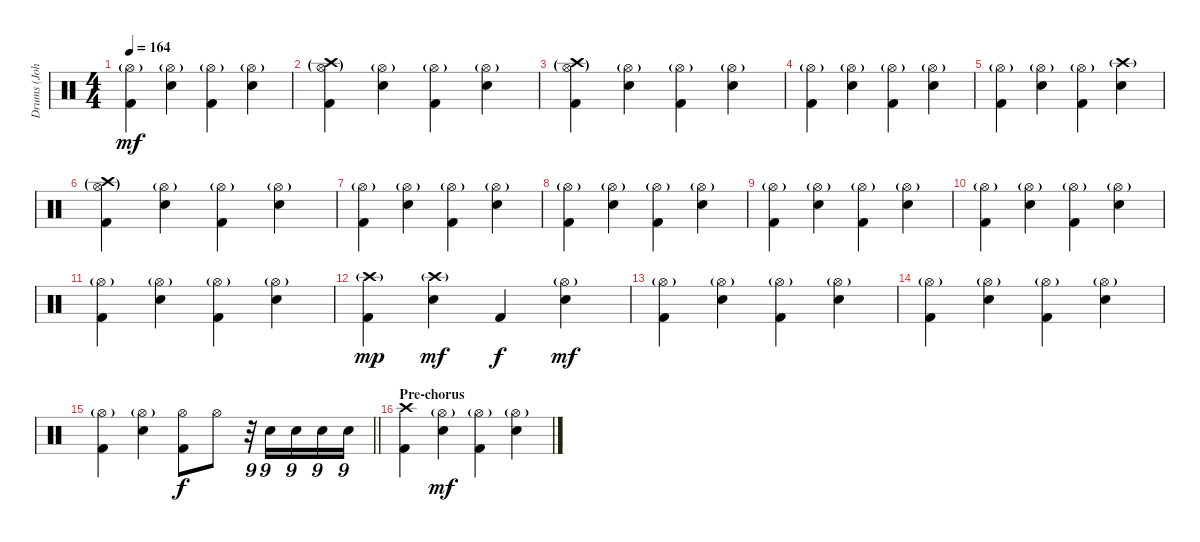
\track ("Drums (John O'Reilly)" "Drums (Joh") {instrument percussion}
\staff {score}
\articulation defaults
\ts (4 4)
\tempo 164
\clef neutral
\ks c
("Hi-Hat (open)"{g} "Kick (hit) 2").4{dy mf} ("Hi-Hat (open)"{g} "Electric Snare (hit)").4 ("Hi-Hat (open)"{g} "Kick (hit) 2").4 ("Hi-Hat (open)"{g} "Electric Snare (hit)").4 |
("Crash high (hit)"{g} "Hi-Hat (open)"{g} "Kick (hit) 2").4 ("Hi-Hat (open)"{g} "Electric Snare (hit)").4 ("Hi-Hat (open)"{g} "Kick (hit) 2").4 ("Hi-Hat (open)"{g} "Electric Snare (hit)").4 |
("Crash high (hit)"{g} "Hi-Hat (open)"{g} "Kick (hit) 2").4 ("Hi-Hat (open)"{g} "Electric Snare (hit)").4 ("Hi-Hat (open)"{g} "Kick (hit) 2").4 ("Hi-Hat (open)"{g} "Electric Snare (hit)").4 |
("Hi-Hat (open)"{g} "Kick (hit) 2").4 ("Hi-Hat (open)"{g} "Electric Snare (hit)").4 ("Hi-Hat (open)"{g} "Kick (hit) 2").4 ("Hi-Hat (open)"{g} "Electric Snare (hit)").4 |
("Hi-Hat (open)"{g} "Kick (hit) 2").4 ("Hi-Hat (open)"{g} "Electric Snare (hit)").4 ("Hi-Hat (open)"{g} "Kick (hit) 2").4 ("Crash high (hit)"{g} "Electric Snare (hit)").4 |
("Crash high (hit)"{g} "Hi-Hat (open)"{g} "Kick (hit) 2").4 ("Hi-Hat (open)"{g} "Electric Snare (hit)").4 ("Hi-Hat (open)"{g} "Kick (hit) 2").4 ("Hi-Hat (open)"{g} "Electric Snare (hit)").4 |
("Hi-Hat (open)"{g} "Kick (hit) 2").4 ("Hi-Hat (open)"{g} "Electric Snare (hit)").4 ("Hi-Hat (open)"{g} "Kick (hit) 2").4 ("Hi-Hat (open)"{g} "Electric Snare (hit)").4 |
("Hi-Hat (open)"{g} "Kick (hit) 2").4 ("Hi-Hat (open)"{g} "Electric Snare (hit)").4 ("Hi-Hat (open)"{g} "Kick (hit) 2").4 ("Hi-Hat (open)"{g} "Electric Snare (hit)").4 |
("Hi-Hat (open)"{g} "Kick (hit) 2").4 ("Hi-Hat (open)"{g} "Electric Snare (hit)").4 ("Hi-Hat (open)"{g} "Kick (hit) 2").4 ("Hi-Hat (open)"{g} "Electric Snare (hit)").4 |
("Hi-Hat (open)"{g} "Kick (hit) 2").4 ("Hi-Hat (open)"{g} "Electric Snare (hit)").4 ("Hi-Hat (open)"{g} "Kick (hit) 2").4 ("Hi-Hat (open)"{g} "Electric Snare (hit)").4 |
("Hi-Hat (open)"{g} "Kick (hit) 2").4 ("Hi-Hat (open)"{g} "Electric Snare (hit)").4 ("Hi-Hat (open)"{g} "Kick (hit) 2").4 ("Hi-Hat (open)"{g} "Electric Snare (hit)").4 |
("Crash high (hit)"{g} "Kick (hit) 2").4{dy mp} ("Crash high (hit)"{g} "Electric Snare (hit)").4{dy mf} "Kick (hit) 2".4{dy f} ("Hi-Hat (open)"{g} "Electric Snare (hit)").4{dy mf} |
("Hi-Hat (open)"{g} "Kick (hit) 2").4 ("Hi-Hat (open)"{g} "Electric Snare (hit)").4 ("Hi-Hat (open)"{g} "Kick (hit) 2").4 ("Hi-Hat (open)"{g} "Electric Snare (hit)").4 |
("Hi-Hat (open)"{g} "Kick (hit) 2").4 ("Hi-Hat (open)"{g} "Electric Snare (hit)").4 ("Hi-Hat (open)"{g} "Kick (hit) 2").4 ("Hi-Hat (open)"{g} "Electric Snare (hit)").4 |
\barLineRight lightlight
("Hi-Hat (open)"{g} "Kick (hit) 2").4 ("Hi-Hat (open)"{g} "Electric Snare (hit)").4 ("Hi-Hat (open)" "Kick (hit) 2").8{dy f} "Hi-Hat (open)".8 r.32{tu (9 8)} "Electric Snare (hit)".16{tu (9 8)} "Electric Snare (hit)".16{tu (9 8)} "Electric Snare (hit)".16{tu (9 8)} "Electric Snare (hit)".16{tu (9 8)} |
\section ("" "Pre-chorus")
("Crash high (hit)" "Kick (hit) 2").4 ("Hi-Hat (open)"{g} "Electric Snare (hit)").4{dy mf} ("Hi-Hat (open)"{g} "Kick (hit) 2").4 ("Hi-Hat (open)"{g} "Electric Snare (hit)").4
